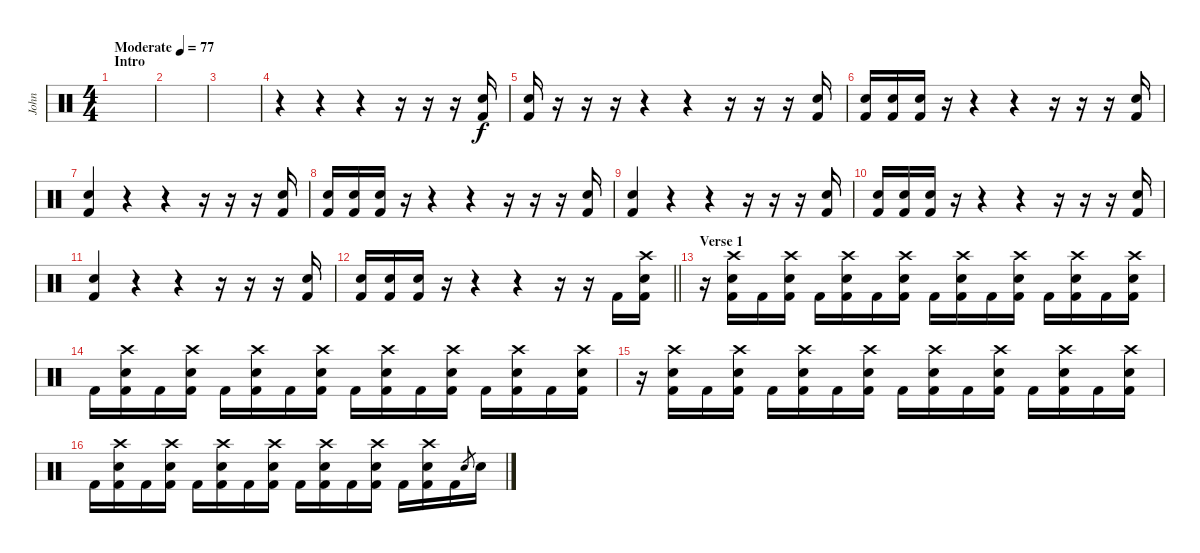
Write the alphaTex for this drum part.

\track ("John" "John") {instrument percussion}
\staff {score}
\articulation defaults
\ts (4 4)
\section ("" "Intro")
\tempo (77 "Moderate")
\clef neutral
\ks c
|
|
|
r.4 r.4 r.4 r.16 r.16 r.16 ("Electric Snare (hit)" "Kick (hit) 2").16 |
("Electric Snare (hit)" "Kick (hit) 2").16 r.16 r.16 r.16 r.4 r.4 r.16 r.16 r.16 ("Electric Snare (hit)" "Kick (hit) 2").16 |
("Electric Snare (hit)" "Kick (hit) 2").16 ("Electric Snare (hit)" "Kick (hit) 2").16 ("Electric Snare (hit)" "Kick (hit) 2").16 r.16 r.4 r.4 r.16 r.16 r.16 ("Electric Snare (hit)" "Kick (hit) 2").16 |
("Electric Snare (hit)" "Kick (hit) 2").4 r.4 r.4 r.16 r.16 r.16 ("Electric Snare (hit)" "Kick (hit) 2").16 |
("Electric Snare (hit)" "Kick (hit) 2").16 ("Electric Snare (hit)" "Kick (hit) 2").16 ("Electric Snare (hit)" "Kick (hit) 2").16 r.16 r.4 r.4 r.16 r.16 r.16 ("Electric Snare (hit)" "Kick (hit) 2").16 |
("Electric Snare (hit)" "Kick (hit) 2").4 r.4 r.4 r.16 r.16 r.16 ("Electric Snare (hit)" "Kick (hit) 2").16 |
("Electric Snare (hit)" "Kick (hit) 2").16 ("Electric Snare (hit)" "Kick (hit) 2").16 ("Electric Snare (hit)" "Kick (hit) 2").16 r.16 r.4 r.4 r.16 r.16 r.16 ("Electric Snare (hit)" "Kick (hit) 2").16 |
("Electric Snare (hit)" "Kick (hit) 2").4 r.4 r.4 r.16 r.16 r.16 ("Electric Snare (hit)" "Kick (hit) 2").16 |
\barLineRight lightlight
("Electric Snare (hit)" "Kick (hit) 2").16 ("Electric Snare (hit)" "Kick (hit) 2").16 ("Electric Snare (hit)" "Kick (hit) 2").16 r.16 r.4 r.4 r.16 r.16 "Kick (hit) 2".16 ("Crash high (hit)" "Electric Snare (hit)" "Kick (hit) 2").16 |
\section ("" "Verse 1")
r.16 ("Crash high (hit)" "Electric Snare (hit)" "Kick (hit) 2").16 "Kick (hit) 2".16 ("Crash high (hit)" "Electric Snare (hit)" "Kick (hit) 2").16 "Kick (hit) 2".16 ("Crash high (hit)" "Electric Snare (hit)" "Kick (hit) 2").16 "Kick (hit) 2".16 ("Crash high (hit)" "Electric Snare (hit)" "Kick (hit) 2").16 "Kick (hit) 2".16 ("Crash high (hit)" "Electric Snare (hit)" "Kick (hit) 2").16 "Kick (hit) 2".16 ("Crash high (hit)" "Electric Snare (hit)" "Kick (hit) 2").16 "Kick (hit) 2".16 ("Crash high (hit)" "Electric Snare (hit)" "Kick (hit) 2").16 "Kick (hit) 2".16 ("Crash high (hit)" "Electric Snare (hit)" "Kick (hit) 2").16 |
"Kick (hit) 2".16 ("Crash high (hit)" "Electric Snare (hit)" "Kick (hit) 2").16 "Kick (hit) 2".16 ("Crash high (hit)" "Electric Snare (hit)" "Kick (hit) 2").16 "Kick (hit) 2".16 ("Crash high (hit)" "Electric Snare (hit)" "Kick (hit) 2").16 "Kick (hit) 2".16 ("Crash high (hit)" "Electric Snare (hit)" "Kick (hit) 2").16 "Kick (hit) 2".16 ("Crash high (hit)" "Electric Snare (hit)" "Kick (hit) 2").16 "Kick (hit) 2".16 ("Crash high (hit)" "Electric Snare (hit)" "Kick (hit) 2").16 "Kick (hit) 2".16 ("Crash high (hit)" "Electric Snare (hit)" "Kick (hit) 2").16 "Kick (hit) 2".16 ("Crash high (hit)" "Electric Snare (hit)" "Kick (hit) 2").16 |
r.16 ("Crash high (hit)" "Electric Snare (hit)" "Kick (hit) 2").16 "Kick (hit) 2".16 ("Crash high (hit)" "Electric Snare (hit)" "Kick (hit) 2").16 "Kick (hit) 2".16 ("Crash high (hit)" "Electric Snare (hit)" "Kick (hit) 2").16 "Kick (hit) 2".16 ("Crash high (hit)" "Electric Snare (hit)" "Kick (hit) 2").16 "Kick (hit) 2".16 ("Crash high (hit)" "Electric Snare (hit)" "Kick (hit) 2").16 "Kick (hit) 2".16 ("Crash high (hit)" "Electric Snare (hit)" "Kick (hit) 2").16 "Kick (hit) 2".16 ("Crash high (hit)" "Electric Snare (hit)" "Kick (hit) 2").16 "Kick (hit) 2".16 ("Crash high (hit)" "Electric Snare (hit)" "Kick (hit) 2").16 |
"Kick (hit) 2".16 ("Crash high (hit)" "Electric Snare (hit)" "Kick (hit) 2").16 "Kick (hit) 2".16 ("Crash high (hit)" "Electric Snare (hit)" "Kick (hit) 2").16 "Kick (hit) 2".16 ("Crash high (hit)" "Electric Snare (hit)" "Kick (hit) 2").16 "Kick (hit) 2".16 ("Crash high (hit)" "Electric Snare (hit)" "Kick (hit) 2").16 "Kick (hit) 2".16 ("Crash high (hit)" "Electric Snare (hit)" "Kick (hit) 2").16 "Kick (hit) 2".16 ("Crash high (hit)" "Electric Snare (hit)" "Kick (hit) 2").16 "Kick (hit) 2".16 ("Crash high (hit)" "Electric Snare (hit)" "Kick (hit) 2").16 "Kick (hit) 2".16 "Snare (hit) 2".8{gr} "Electric Snare (hit)".16
